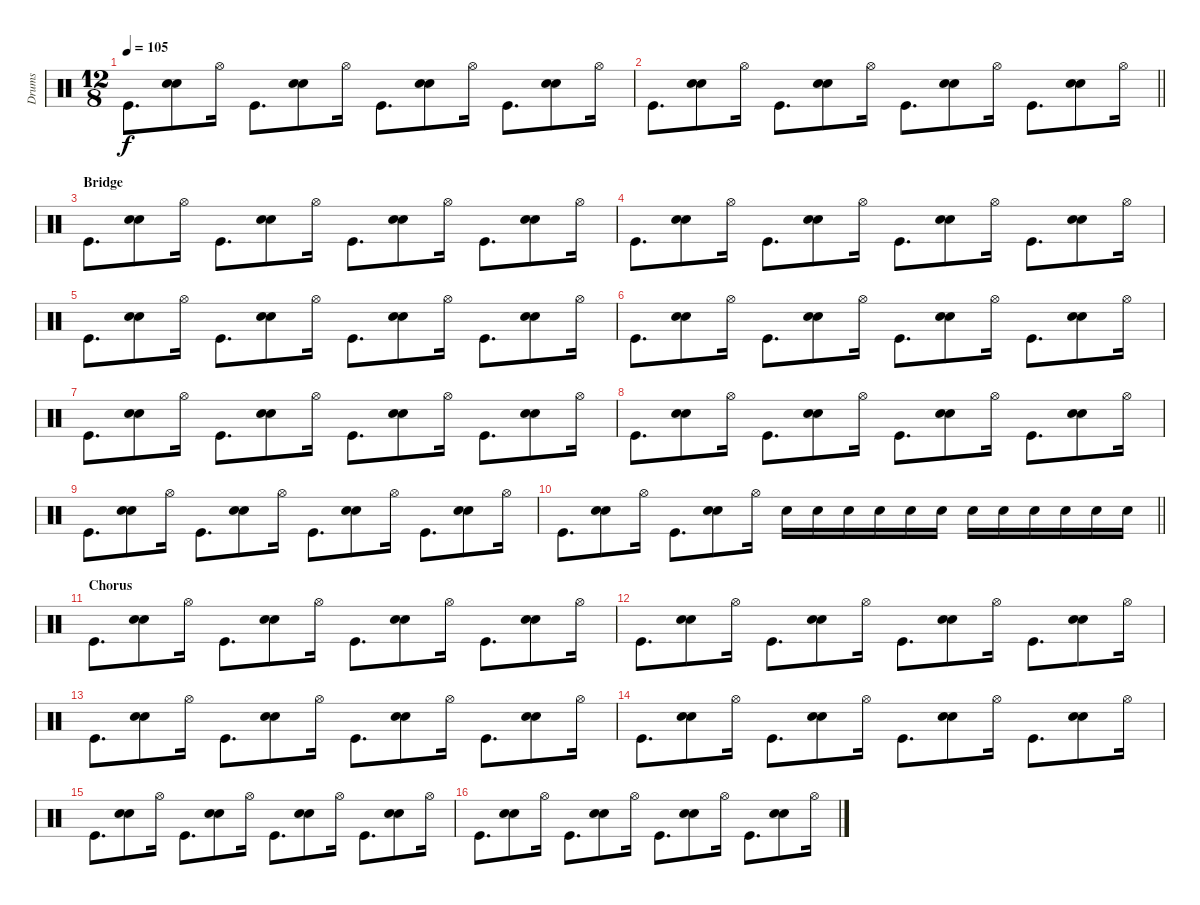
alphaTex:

\track ("Drums" "Drums") {instrument percussion}
\staff {score}
\articulation defaults
\ts (12 8)
\tempo 105
\clef neutral
\ks c "Kick (hit)".8{d dy f}
("Hand Clap (hit)" "Electric Snare (hit)").8 "Hi-Hat (open)".16 "Kick (hit)".8{d} ("Hand Clap (hit)" "Electric Snare (hit)").8 "Hi-Hat (open)".16 "Kick (hit)".8{d} ("Hand Clap (hit)" "Electric Snare (hit)").8 "Hi-Hat (open)".16 "Kick (hit)".8{d} ("Hand Clap (hit)" "Electric Snare (hit)").8 "Hi-Hat (open)".16 |
\barLineRight lightlight "Kick (hit)".8{d}
("Hand Clap (hit)" "Electric Snare (hit)").8 "Hi-Hat (open)".16 "Kick (hit)".8{d} ("Hand Clap (hit)" "Electric Snare (hit)").8 "Hi-Hat (open)".16 "Kick (hit)".8{d} ("Hand Clap (hit)" "Electric Snare (hit)").8 "Hi-Hat (open)".16 "Kick (hit)".8{d} ("Hand Clap (hit)" "Electric Snare (hit)").8 "Hi-Hat (open)".16 |
\section ("" "Bridge")
"Kick (hit)".8{d} ("Hand Clap (hit)" "Electric Snare (hit)").8 "Hi-Hat (open)".16 "Kick (hit)".8{d} ("Hand Clap (hit)" "Electric Snare (hit)").8 "Hi-Hat (open)".16 "Kick (hit)".8{d} ("Hand Clap (hit)" "Electric Snare (hit)").8 "Hi-Hat (open)".16 "Kick (hit)".8{d} ("Hand Clap (hit)" "Electric Snare (hit)").8 "Hi-Hat (open)".16 |
"Kick (hit)".8{d} ("Hand Clap (hit)" "Electric Snare (hit)").8 "Hi-Hat (open)".16 "Kick (hit)".8{d} ("Hand Clap (hit)" "Electric Snare (hit)").8 "Hi-Hat (open)".16 "Kick (hit)".8{d} ("Hand Clap (hit)" "Electric Snare (hit)").8 "Hi-Hat (open)".16 "Kick (hit)".8{d} ("Hand Clap (hit)" "Electric Snare (hit)").8 "Hi-Hat (open)".16 |
"Kick (hit)".8{d} ("Hand Clap (hit)" "Electric Snare (hit)").8 "Hi-Hat (open)".16 "Kick (hit)".8{d} ("Hand Clap (hit)" "Electric Snare (hit)").8 "Hi-Hat (open)".16 "Kick (hit)".8{d} ("Hand Clap (hit)" "Electric Snare (hit)").8 "Hi-Hat (open)".16 "Kick (hit)".8{d} ("Hand Clap (hit)" "Electric Snare (hit)").8 "Hi-Hat (open)".16 |
"Kick (hit)".8{d} ("Hand Clap (hit)" "Electric Snare (hit)").8 "Hi-Hat (open)".16 "Kick (hit)".8{d} ("Hand Clap (hit)" "Electric Snare (hit)").8 "Hi-Hat (open)".16 "Kick (hit)".8{d} ("Hand Clap (hit)" "Electric Snare (hit)").8 "Hi-Hat (open)".16 "Kick (hit)".8{d} ("Hand Clap (hit)" "Electric Snare (hit)").8 "Hi-Hat (open)".16 |
"Kick (hit)".8{d} ("Hand Clap (hit)" "Electric Snare (hit)").8 "Hi-Hat (open)".16 "Kick (hit)".8{d} ("Hand Clap (hit)" "Electric Snare (hit)").8 "Hi-Hat (open)".16 "Kick (hit)".8{d} ("Hand Clap (hit)" "Electric Snare (hit)").8 "Hi-Hat (open)".16 "Kick (hit)".8{d} ("Hand Clap (hit)" "Electric Snare (hit)").8 "Hi-Hat (open)".16 |
"Kick (hit)".8{d} ("Hand Clap (hit)" "Electric Snare (hit)").8 "Hi-Hat (open)".16 "Kick (hit)".8{d} ("Hand Clap (hit)" "Electric Snare (hit)").8 "Hi-Hat (open)".16 "Kick (hit)".8{d} ("Hand Clap (hit)" "Electric Snare (hit)").8 "Hi-Hat (open)".16 "Kick (hit)".8{d} ("Hand Clap (hit)" "Electric Snare (hit)").8 "Hi-Hat (open)".16 |
"Kick (hit)".8{d} ("Hand Clap (hit)" "Electric Snare (hit)").8 "Hi-Hat (open)".16 "Kick (hit)".8{d} ("Hand Clap (hit)" "Electric Snare (hit)").8 "Hi-Hat (open)".16 "Kick (hit)".8{d} ("Hand Clap (hit)" "Electric Snare (hit)").8 "Hi-Hat (open)".16 "Kick (hit)".8{d} ("Hand Clap (hit)" "Electric Snare (hit)").8 "Hi-Hat (open)".16 |
\barLineRight lightlight "Kick (hit)".8{d}
("Hand Clap (hit)" "Electric Snare (hit)").8 "Hi-Hat (open)".16 "Kick (hit)".8{d} ("Hand Clap (hit)" "Electric Snare (hit)").8 "Hi-Hat (open)".16 "Electric Snare (hit)".16 "Electric Snare (hit)".16 "Electric Snare (hit)".16 "Electric Snare (hit)".16 "Electric Snare (hit)".16 "Electric Snare (hit)".16 "Electric Snare (hit)".16 "Electric Snare (hit)".16 "Electric Snare (hit)".16 "Electric Snare (hit)".16 "Electric Snare (hit)".16 "Electric Snare (hit)".16 |
\section ("" "Chorus")
"Kick (hit)".8{d} ("Hand Clap (hit)" "Electric Snare (hit)").8 "Hi-Hat (open)".16 "Kick (hit)".8{d} ("Hand Clap (hit)" "Electric Snare (hit)").8 "Hi-Hat (open)".16 "Kick (hit)".8{d} ("Hand Clap (hit)" "Electric Snare (hit)").8 "Hi-Hat (open)".16 "Kick (hit)".8{d} ("Hand Clap (hit)" "Electric Snare (hit)").8 "Hi-Hat (open)".16 |
"Kick (hit)".8{d} ("Hand Clap (hit)" "Electric Snare (hit)").8 "Hi-Hat (open)".16 "Kick (hit)".8{d} ("Hand Clap (hit)" "Electric Snare (hit)").8 "Hi-Hat (open)".16 "Kick (hit)".8{d} ("Hand Clap (hit)" "Electric Snare (hit)").8 "Hi-Hat (open)".16 "Kick (hit)".8{d} ("Hand Clap (hit)" "Electric Snare (hit)").8 "Hi-Hat (open)".16 |
"Kick (hit)".8{d} ("Hand Clap (hit)" "Electric Snare (hit)").8 "Hi-Hat (open)".16 "Kick (hit)".8{d} ("Hand Clap (hit)" "Electric Snare (hit)").8 "Hi-Hat (open)".16 "Kick (hit)".8{d} ("Hand Clap (hit)" "Electric Snare (hit)").8 "Hi-Hat (open)".16 "Kick (hit)".8{d} ("Hand Clap (hit)" "Electric Snare (hit)").8 "Hi-Hat (open)".16 |
"Kick (hit)".8{d} ("Hand Clap (hit)" "Electric Snare (hit)").8 "Hi-Hat (open)".16 "Kick (hit)".8{d} ("Hand Clap (hit)" "Electric Snare (hit)").8 "Hi-Hat (open)".16 "Kick (hit)".8{d} ("Hand Clap (hit)" "Electric Snare (hit)").8 "Hi-Hat (open)".16 "Kick (hit)".8{d} ("Hand Clap (hit)" "Electric Snare (hit)").8 "Hi-Hat (open)".16 |
"Kick (hit)".8{d} ("Hand Clap (hit)" "Electric Snare (hit)").8 "Hi-Hat (open)".16 "Kick (hit)".8{d} ("Hand Clap (hit)" "Electric Snare (hit)").8 "Hi-Hat (open)".16 "Kick (hit)".8{d} ("Hand Clap (hit)" "Electric Snare (hit)").8 "Hi-Hat (open)".16 "Kick (hit)".8{d} ("Hand Clap (hit)" "Electric Snare (hit)").8 "Hi-Hat (open)".16 |
"Kick (hit)".8{d} ("Hand Clap (hit)" "Electric Snare (hit)").8 "Hi-Hat (open)".16 "Kick (hit)".8{d} ("Hand Clap (hit)" "Electric Snare (hit)").8 "Hi-Hat (open)".16 "Kick (hit)".8{d} ("Hand Clap (hit)" "Electric Snare (hit)").8 "Hi-Hat (open)".16 "Kick (hit)".8{d} ("Hand Clap (hit)" "Electric Snare (hit)").8 "Hi-Hat (open)".16
